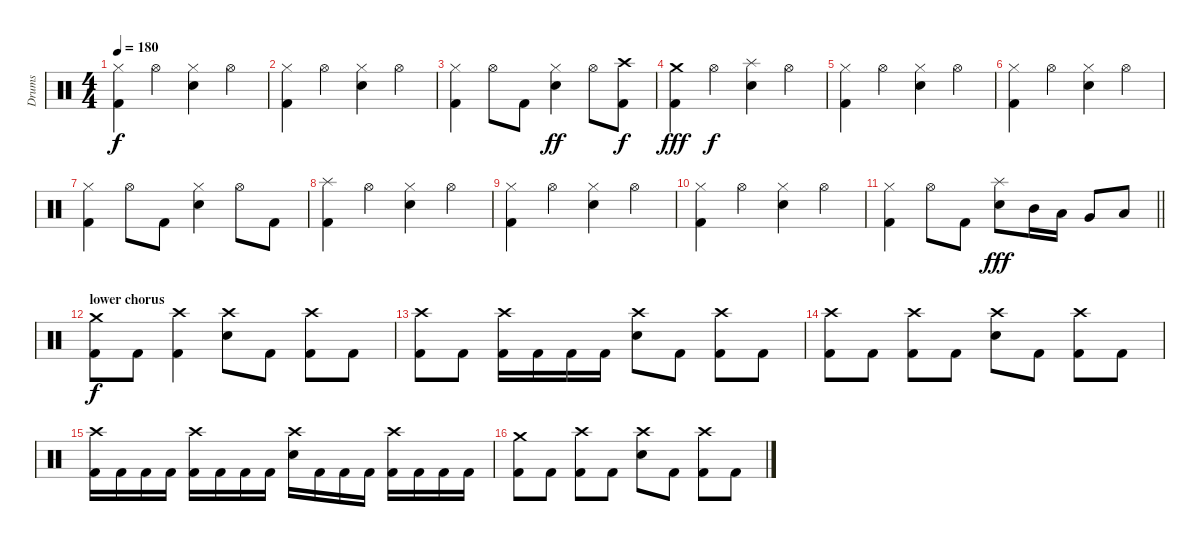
\track ("Drums" "Drums") {instrument percussion}
\staff {score}
\articulation defaults
\ts (4 4)
\tempo 180
\clef neutral
\ks c
("Kick (hit) 2" "Hi-Hat (closed)").4{dy f} "Hi-Hat (open)".4 ("Hi-Hat (closed)" "Snare (hit) 2").4 "Hi-Hat (open)".4 |
("Kick (hit) 2" "Hi-Hat (closed)").4 "Hi-Hat (open)".4 ("Hi-Hat (closed)" "Snare (hit) 2").4 "Hi-Hat (open)".4 |
("Kick (hit) 2" "Hi-Hat (closed)").4 "Hi-Hat (open)".8 "Kick (hit) 2".8 ("Hi-Hat (closed)" "Snare (hit) 2").4{dy ff} "Hi-Hat (open)".8 ("Kick (hit) 2" "Crash high (hit)").8{dy f} |
("Kick (hit) 2" "Crash medium (hit)").4{dy fff} "Hi-Hat (open)".4{dy f} ("Splash (hit)" "Snare (hit) 2").4 "Hi-Hat (open)".4 |
("Kick (hit) 2" "Hi-Hat (closed)").4 "Hi-Hat (open)".4 ("Hi-Hat (closed)" "Snare (hit) 2").4 "Hi-Hat (open)".4 |
("Kick (hit) 2" "Hi-Hat (closed)").4 "Hi-Hat (open)".4 ("Hi-Hat (closed)" "Snare (hit) 2").4 "Hi-Hat (open)".4 |
("Kick (hit) 2" "Hi-Hat (closed)").4 "Hi-Hat (open)".8 "Kick (hit) 2".8 ("Hi-Hat (closed)" "Snare (hit) 2").4 "Hi-Hat (open)".8 "Kick (hit) 2".8 |
("Kick (hit) 2" "Splash (hit)").4 "Hi-Hat (open)".4 ("Hi-Hat (closed)" "Snare (hit) 2").4 "Hi-Hat (open)".4 |
("Kick (hit) 2" "Hi-Hat (closed)").4 "Hi-Hat (open)".4 ("Hi-Hat (closed)" "Snare (hit) 2").4 "Hi-Hat (open)".4 |
("Kick (hit) 2" "Hi-Hat (closed)").4 "Hi-Hat (open)".4 ("Hi-Hat (closed)" "Snare (hit) 2").4 "Hi-Hat (open)".4 |
\barLineRight lightlight
("Kick (hit) 2" "Hi-Hat (closed)").4 "Hi-Hat (open)".8 "Kick (hit) 2".8 ("Splash (hit)" "Snare (hit) 2").8{dy fff} "Mid Tom (hit)".16 "Low Tom (hit)".16 "Very Low Tom (hit)".8 "Low Floor Tom (hit)".8 |
\section ("" "lower chorus")
("Kick (hit) 2" "Crash medium (hit)").8{dy f} "Kick (hit) 2".8 ("Kick (hit) 2" "Crash high (hit)").4 ("Crash high (hit)" "Snare (hit) 2").8 "Kick (hit) 2".8 ("Kick (hit) 2" "Crash high (hit)").8 "Kick (hit) 2".8 |
("Kick (hit) 2" "Crash high (hit)").8 "Kick (hit) 2".8 ("Kick (hit) 2" "Crash high (hit)").16 "Kick (hit) 2".16 "Kick (hit) 2".16 "Kick (hit) 2".16 ("Crash high (hit)" "Snare (hit) 2").8 "Kick (hit) 2".8 ("Kick (hit) 2" "Crash high (hit)").8 "Kick (hit) 2".8 |
("Kick (hit) 2" "Crash high (hit)").8 "Kick (hit) 2".8 ("Kick (hit) 2" "Crash high (hit)").8 "Kick (hit) 2".8 ("Crash high (hit)" "Snare (hit) 2").8 "Kick (hit) 2".8 ("Kick (hit) 2" "Crash high (hit)").8 "Kick (hit) 2".8 |
("Kick (hit) 2" "Crash high (hit)").16 "Kick (hit) 2".16 "Kick (hit) 2".16 "Kick (hit) 2".16 ("Kick (hit) 2" "Crash high (hit)").16 "Kick (hit) 2".16 "Kick (hit) 2".16 "Kick (hit) 2".16 ("Crash high (hit)" "Snare (hit) 2").16 "Kick (hit) 2".16 "Kick (hit) 2".16 "Kick (hit) 2".16 ("Kick (hit) 2" "Crash high (hit)").16 "Kick (hit) 2".16 "Kick (hit) 2".16 "Kick (hit) 2".16 |
("Kick (hit) 2" "Crash medium (hit)").8 "Kick (hit) 2".8 ("Kick (hit) 2" "Crash high (hit)").8 "Kick (hit) 2".8 ("Crash high (hit)" "Snare (hit) 2").8 "Kick (hit) 2".8 ("Kick (hit) 2" "Crash high (hit)").8 "Kick (hit) 2".8
